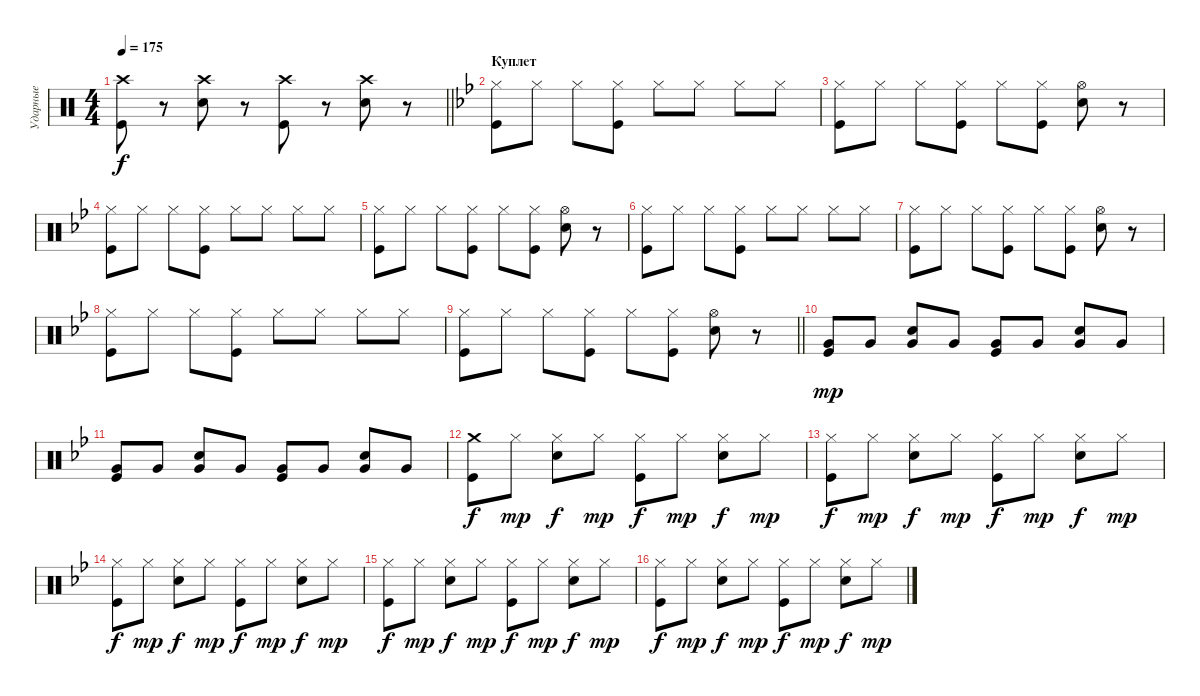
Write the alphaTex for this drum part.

\track ("Ударные" "Ударные") {instrument percussion}
\staff {score}
\articulation defaults
\ts (4 4)
\tempo 175
\clef neutral
\barLineRight lightlight
\ks c
("Crash high (hit)" "Kick (hit)").8{dy f} r.8 ("Crash high (hit)" "Electric Snare (hit)").8 r.8 ("Crash high (hit)" "Kick (hit)").8 r.8 ("Crash high (hit)" "Electric Snare (hit)").8 r.8 |
\section ("" "Куплет")
\ks bb
("Hi-Hat (closed)" "Kick (hit)").8 "Hi-Hat (closed)".8 "Hi-Hat (closed)".8 ("Hi-Hat (closed)" "Kick (hit)").8 "Hi-Hat (closed)".8 "Hi-Hat (closed)".8 "Hi-Hat (closed)".8 "Hi-Hat (closed)".8 |
("Hi-Hat (closed)" "Kick (hit)").8 "Hi-Hat (closed)".8 "Hi-Hat (closed)".8 ("Hi-Hat (closed)" "Kick (hit)").8 "Hi-Hat (closed)".8 ("Hi-Hat (closed)" "Kick (hit)").8 ("Hi-Hat (open)" "Electric Snare (hit)").8 r.8 |
("Hi-Hat (closed)" "Kick (hit)").8 "Hi-Hat (closed)".8 "Hi-Hat (closed)".8 ("Hi-Hat (closed)" "Kick (hit)").8 "Hi-Hat (closed)".8 "Hi-Hat (closed)".8 "Hi-Hat (closed)".8 "Hi-Hat (closed)".8 |
("Hi-Hat (closed)" "Kick (hit)").8 "Hi-Hat (closed)".8 "Hi-Hat (closed)".8 ("Hi-Hat (closed)" "Kick (hit)").8 "Hi-Hat (closed)".8 ("Hi-Hat (closed)" "Kick (hit)").8 ("Hi-Hat (open)" "Electric Snare (hit)").8 r.8 |
("Hi-Hat (closed)" "Kick (hit)").8 "Hi-Hat (closed)".8 "Hi-Hat (closed)".8 ("Hi-Hat (closed)" "Kick (hit)").8 "Hi-Hat (closed)".8 "Hi-Hat (closed)".8 "Hi-Hat (closed)".8 "Hi-Hat (closed)".8 |
("Hi-Hat (closed)" "Kick (hit)").8 "Hi-Hat (closed)".8 "Hi-Hat (closed)".8 ("Hi-Hat (closed)" "Kick (hit)").8 "Hi-Hat (closed)".8 ("Hi-Hat (closed)" "Kick (hit)").8 ("Hi-Hat (open)" "Electric Snare (hit)").8 r.8 |
("Hi-Hat (closed)" "Kick (hit)").8 "Hi-Hat (closed)".8 "Hi-Hat (closed)".8 ("Hi-Hat (closed)" "Kick (hit)").8 "Hi-Hat (closed)".8 "Hi-Hat (closed)".8 "Hi-Hat (closed)".8 "Hi-Hat (closed)".8 |
\barLineRight lightlight
("Hi-Hat (closed)" "Kick (hit)").8 "Hi-Hat (closed)".8 "Hi-Hat (closed)".8 ("Hi-Hat (closed)" "Kick (hit)").8 "Hi-Hat (closed)".8 ("Hi-Hat (closed)" "Kick (hit)").8 ("Hi-Hat (open)" "Electric Snare (hit)").8 r.8 |
\section ("" " ")
("Very Low Tom (hit)" "Kick (hit)").8{dy mp} "Very Low Tom (hit)".8 ("Very Low Tom (hit)" "Electric Snare (hit)").8 "Very Low Tom (hit)".8 ("Very Low Tom (hit)" "Kick (hit)").8 "Very Low Tom (hit)".8 ("Very Low Tom (hit)" "Electric Snare (hit)").8 "Very Low Tom (hit)".8 |
("Very Low Tom (hit)" "Kick (hit)").8 "Very Low Tom (hit)".8 ("Very Low Tom (hit)" "Electric Snare (hit)").8 "Very Low Tom (hit)".8 ("Very Low Tom (hit)" "Kick (hit)").8 "Very Low Tom (hit)".8 ("Very Low Tom (hit)" "Electric Snare (hit)").8 "Very Low Tom (hit)".8 |
("Crash medium (hit)" "Kick (hit)").8{dy f} "Hi-Hat (closed)".8{dy mp} ("Hi-Hat (closed)" "Electric Snare (hit)").8{dy f} "Hi-Hat (closed)".8{dy mp} ("Hi-Hat (closed)" "Kick (hit)").8{dy f} "Hi-Hat (closed)".8{dy mp} ("Hi-Hat (closed)" "Electric Snare (hit)").8{dy f} "Hi-Hat (closed)".8{dy mp} |
("Hi-Hat (closed)" "Kick (hit)").8{dy f} "Hi-Hat (closed)".8{dy mp} ("Hi-Hat (closed)" "Electric Snare (hit)").8{dy f} "Hi-Hat (closed)".8{dy mp} ("Hi-Hat (closed)" "Kick (hit)").8{dy f} "Hi-Hat (closed)".8{dy mp} ("Hi-Hat (closed)" "Electric Snare (hit)").8{dy f} "Hi-Hat (closed)".8{dy mp} |
("Hi-Hat (closed)" "Kick (hit)").8{dy f} "Hi-Hat (closed)".8{dy mp} ("Hi-Hat (closed)" "Electric Snare (hit)").8{dy f} "Hi-Hat (closed)".8{dy mp} ("Hi-Hat (closed)" "Kick (hit)").8{dy f} "Hi-Hat (closed)".8{dy mp} ("Hi-Hat (closed)" "Electric Snare (hit)").8{dy f} "Hi-Hat (closed)".8{dy mp} |
("Hi-Hat (closed)" "Kick (hit)").8{dy f} "Hi-Hat (closed)".8{dy mp} ("Hi-Hat (closed)" "Electric Snare (hit)").8{dy f} "Hi-Hat (closed)".8{dy mp} ("Hi-Hat (closed)" "Kick (hit)").8{dy f} "Hi-Hat (closed)".8{dy mp} ("Hi-Hat (closed)" "Electric Snare (hit)").8{dy f} "Hi-Hat (closed)".8{dy mp} |
("Hi-Hat (closed)" "Kick (hit)").8{dy f} "Hi-Hat (closed)".8{dy mp} ("Hi-Hat (closed)" "Electric Snare (hit)").8{dy f} "Hi-Hat (closed)".8{dy mp} ("Hi-Hat (closed)" "Kick (hit)").8{dy f} "Hi-Hat (closed)".8{dy mp} ("Hi-Hat (closed)" "Electric Snare (hit)").8{dy f} "Hi-Hat (closed)".8{dy mp}
